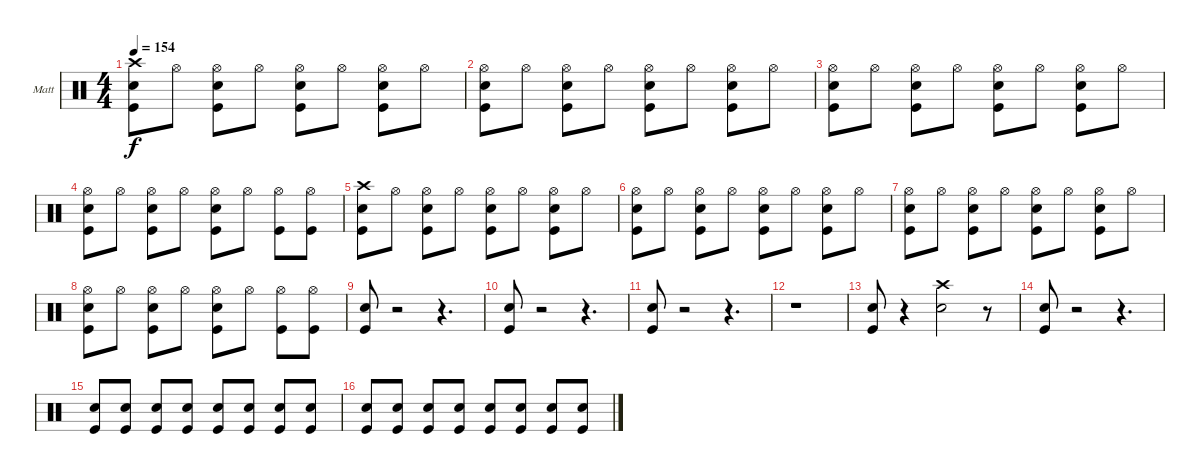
\defaultSystemsLayout 4
\bracketExtendMode groupsimilarinstruments
\firstSystemTrackNameOrientation horizontal
\otherSystemsTrackNameOrientation horizontal
\track ("Matt Helders" "Matt") {instrument percussion}
\staff {score}
\articulation defaults
\ts (4 4)
\tempo 154
\clef neutral
\ks c
("Kick (hit)" "Snare (hit) 2" "Crash high (hit)").8{dy f} "Hi-Hat (open)".8 ("Hi-Hat (open)" "Kick (hit)" "Snare (hit) 2").8 "Hi-Hat (open)".8 ("Hi-Hat (open)" "Kick (hit)" "Snare (hit) 2").8 "Hi-Hat (open)".8 ("Hi-Hat (open)" "Kick (hit)" "Snare (hit) 2").8 "Hi-Hat (open)".8 |
("Kick (hit)" "Snare (hit) 2" "Hi-Hat (open)").8 "Hi-Hat (open)".8 ("Hi-Hat (open)" "Kick (hit)" "Snare (hit) 2").8 "Hi-Hat (open)".8 ("Hi-Hat (open)" "Kick (hit)" "Snare (hit) 2").8 "Hi-Hat (open)".8 ("Hi-Hat (open)" "Kick (hit)" "Snare (hit) 2").8 "Hi-Hat (open)".8 |
("Kick (hit)" "Snare (hit) 2" "Hi-Hat (open)").8 "Hi-Hat (open)".8 ("Hi-Hat (open)" "Kick (hit)" "Snare (hit) 2").8 "Hi-Hat (open)".8 ("Hi-Hat (open)" "Kick (hit)" "Snare (hit) 2").8 "Hi-Hat (open)".8 ("Hi-Hat (open)" "Kick (hit)" "Snare (hit) 2").8 "Hi-Hat (open)".8 |
("Kick (hit)" "Snare (hit) 2" "Hi-Hat (open)").8 "Hi-Hat (open)".8 ("Hi-Hat (open)" "Kick (hit)" "Snare (hit) 2").8 "Hi-Hat (open)".8 ("Hi-Hat (open)" "Kick (hit)" "Snare (hit) 2").8 "Hi-Hat (open)".8 ("Hi-Hat (open)" "Kick (hit)").8 ("Hi-Hat (open)" "Kick (hit)").8 |
("Kick (hit)" "Snare (hit) 2" "Crash high (hit)").8 "Hi-Hat (open)".8 ("Hi-Hat (open)" "Kick (hit)" "Snare (hit) 2").8 "Hi-Hat (open)".8 ("Hi-Hat (open)" "Kick (hit)" "Snare (hit) 2").8 "Hi-Hat (open)".8 ("Hi-Hat (open)" "Kick (hit)" "Snare (hit) 2").8 "Hi-Hat (open)".8 |
("Kick (hit)" "Snare (hit) 2" "Hi-Hat (open)").8 "Hi-Hat (open)".8 ("Hi-Hat (open)" "Kick (hit)" "Snare (hit) 2").8 "Hi-Hat (open)".8 ("Hi-Hat (open)" "Kick (hit)" "Snare (hit) 2").8 "Hi-Hat (open)".8 ("Hi-Hat (open)" "Kick (hit)" "Snare (hit) 2").8 "Hi-Hat (open)".8 |
("Kick (hit)" "Snare (hit) 2" "Hi-Hat (open)").8 "Hi-Hat (open)".8 ("Hi-Hat (open)" "Kick (hit)" "Snare (hit) 2").8 "Hi-Hat (open)".8 ("Hi-Hat (open)" "Kick (hit)" "Snare (hit) 2").8 "Hi-Hat (open)".8 ("Hi-Hat (open)" "Kick (hit)" "Snare (hit) 2").8 "Hi-Hat (open)".8 |
("Kick (hit)" "Snare (hit) 2" "Hi-Hat (open)").8 "Hi-Hat (open)".8 ("Hi-Hat (open)" "Kick (hit)" "Snare (hit) 2").8 "Hi-Hat (open)".8 ("Hi-Hat (open)" "Kick (hit)" "Snare (hit) 2").8 "Hi-Hat (open)".8 ("Hi-Hat (open)" "Kick (hit)").8 ("Hi-Hat (open)" "Kick (hit)").8 |
("Kick (hit)" "Snare (hit) 2").8 r.2 r.4{d} |
("Kick (hit)" "Snare (hit) 2").8 r.2 r.4{d} |
("Kick (hit)" "Snare (hit) 2").8 r.2 r.4{d} |
r.1 |
("Kick (hit)" "Snare (hit) 2").8 r.4 ("Snare (hit) 2" "Crash high (hit)").2 r.8 |
("Kick (hit)" "Snare (hit) 2").8 r.2 r.4{d} |
("Kick (hit)" "Snare (hit) 2").8 ("Kick (hit)" "Snare (hit) 2").8 ("Kick (hit)" "Snare (hit) 2").8 ("Kick (hit)" "Snare (hit) 2").8 ("Kick (hit)" "Snare (hit) 2").8 ("Kick (hit)" "Snare (hit) 2").8 ("Kick (hit)" "Snare (hit) 2").8 ("Kick (hit)" "Snare (hit) 2").8 |
("Kick (hit)" "Snare (hit) 2").8 ("Kick (hit)" "Snare (hit) 2").8 ("Kick (hit)" "Snare (hit) 2").8 ("Kick (hit)" "Snare (hit) 2").8 ("Kick (hit)" "Snare (hit) 2").8 ("Kick (hit)" "Snare (hit) 2").8 ("Kick (hit)" "Snare (hit) 2").8 ("Kick (hit)" "Snare (hit) 2").8
